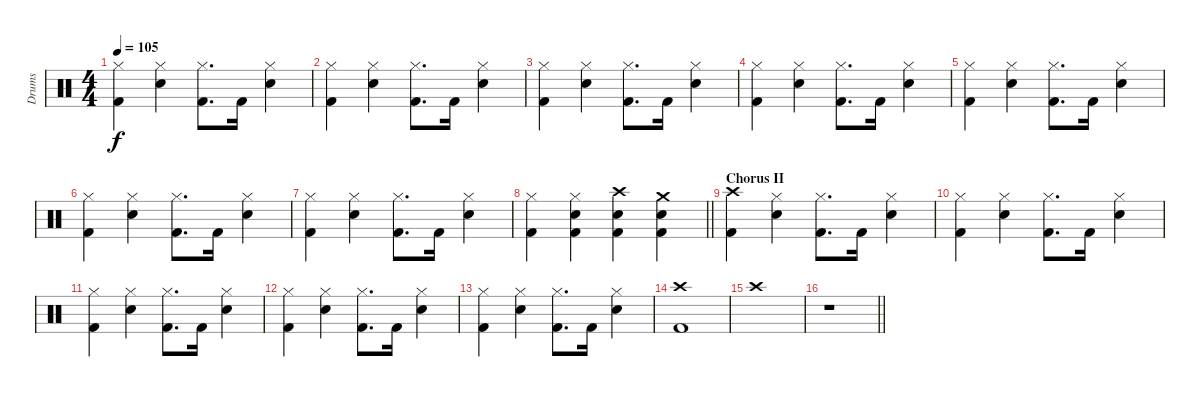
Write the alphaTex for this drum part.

\track ("Drums" "Drums") {instrument percussion}
\staff {score}
\articulation defaults
\ts (4 4)
\tempo 105
\clef neutral
\ks c
("Hi-Hat (closed)" "Kick (hit) 2").4{dy f} ("Hi-Hat (closed)" "Snare (hit) 2").4 ("Hi-Hat (closed)" "Kick (hit) 2").8{d} "Kick (hit) 2".16 ("Hi-Hat (closed)" "Snare (hit) 2").4 |
("Hi-Hat (closed)" "Kick (hit) 2").4 ("Hi-Hat (closed)" "Snare (hit) 2").4 ("Hi-Hat (closed)" "Kick (hit) 2").8{d} "Kick (hit) 2".16 ("Hi-Hat (closed)" "Snare (hit) 2").4 |
("Hi-Hat (closed)" "Kick (hit) 2").4 ("Hi-Hat (closed)" "Snare (hit) 2").4 ("Hi-Hat (closed)" "Kick (hit) 2").8{d} "Kick (hit) 2".16 ("Hi-Hat (closed)" "Snare (hit) 2").4 |
("Hi-Hat (closed)" "Kick (hit) 2").4 ("Hi-Hat (closed)" "Snare (hit) 2").4 ("Hi-Hat (closed)" "Kick (hit) 2").8{d} "Kick (hit) 2".16 ("Hi-Hat (closed)" "Snare (hit) 2").4 |
("Hi-Hat (closed)" "Kick (hit) 2").4 ("Hi-Hat (closed)" "Snare (hit) 2").4 ("Hi-Hat (closed)" "Kick (hit) 2").8{d} "Kick (hit) 2".16 ("Hi-Hat (closed)" "Snare (hit) 2").4 |
("Hi-Hat (closed)" "Kick (hit) 2").4 ("Hi-Hat (closed)" "Snare (hit) 2").4 ("Hi-Hat (closed)" "Kick (hit) 2").8{d} "Kick (hit) 2".16 ("Hi-Hat (closed)" "Snare (hit) 2").4 |
("Hi-Hat (closed)" "Kick (hit) 2").4 ("Hi-Hat (closed)" "Snare (hit) 2").4 ("Hi-Hat (closed)" "Kick (hit) 2").8{d} "Kick (hit) 2".16 ("Hi-Hat (closed)" "Snare (hit) 2").4 |
\barLineRight lightlight
("Hi-Hat (closed)" "Kick (hit) 2").4 ("Hi-Hat (closed)" "Snare (hit) 2" "Kick (hit) 2").4 ("Crash high (hit)" "Snare (hit) 2" "Kick (hit) 2").4 ("Crash medium (hit)" "Snare (hit) 2" "Kick (hit) 2").4 |
\section ("" "Chorus II")
("Crash high (hit)" "Kick (hit) 2").4 ("Hi-Hat (closed)" "Snare (hit) 2").4 ("Hi-Hat (closed)" "Kick (hit) 2").8{d} "Kick (hit) 2".16 ("Hi-Hat (closed)" "Snare (hit) 2").4 |
("Hi-Hat (closed)" "Kick (hit) 2").4 ("Hi-Hat (closed)" "Snare (hit) 2").4 ("Hi-Hat (closed)" "Kick (hit) 2").8{d} "Kick (hit) 2".16 ("Hi-Hat (closed)" "Snare (hit) 2").4 |
("Hi-Hat (closed)" "Kick (hit) 2").4 ("Hi-Hat (closed)" "Snare (hit) 2").4 ("Hi-Hat (closed)" "Kick (hit) 2").8{d} "Kick (hit) 2".16 ("Hi-Hat (closed)" "Snare (hit) 2").4 |
("Hi-Hat (closed)" "Kick (hit) 2").4 ("Hi-Hat (closed)" "Snare (hit) 2").4 ("Hi-Hat (closed)" "Kick (hit) 2").8{d} "Kick (hit) 2".16 ("Hi-Hat (closed)" "Snare (hit) 2").4 |
("Hi-Hat (closed)" "Kick (hit) 2").4 ("Hi-Hat (closed)" "Snare (hit) 2").4 ("Hi-Hat (closed)" "Kick (hit) 2").8{d} "Kick (hit) 2".16 ("Hi-Hat (closed)" "Snare (hit) 2").4 |
("Crash high (hit)" "Kick (hit) 2").1 |
"Crash high (hit)".1 |
\barLineRight lightlight
r.1
